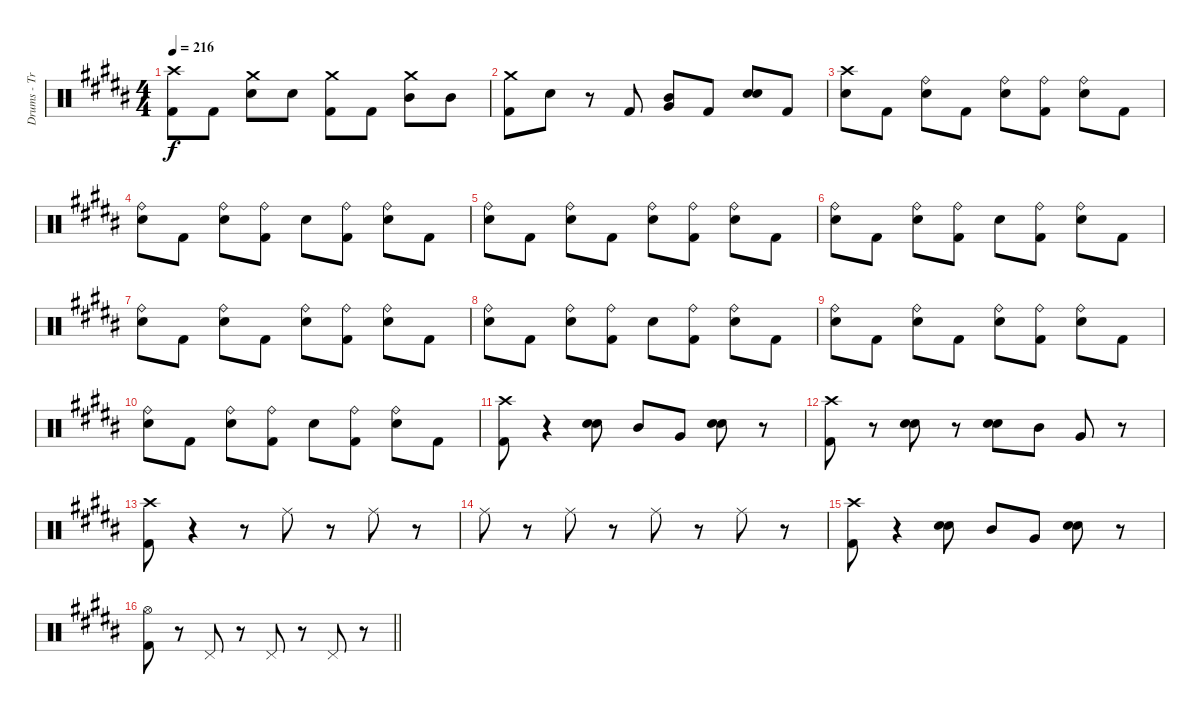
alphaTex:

\track ("Drums - Travis Barker" "Drums - Tr") {instrument percussion}
\staff {score}
\articulation defaults
\ts (4 4)
\tempo 216
\clef neutral
\ks b
("Kick (hit) 2" "Crash high (hit)").8{dy f} "Kick (hit) 2".8 ("Snare (hit) 2" "Crash medium (hit)").8 "Snare (hit) 2".8 ("Kick (hit) 2" "Crash medium (hit)").8 "Kick (hit) 2".8 ("Mid Tom (hit)" "Crash medium (hit)").8 "Mid Tom (hit)".8 |
("Kick (hit) 2" "Crash medium (hit)").8 "Snare (hit) 2".8 r.8 "Kick (hit) 2".8 ("Mid Tom (hit)" "Very Low Tom (hit)").8 "Kick (hit) 2".8 ("Snare (hit) 2" "Snare (hit) 2").8 "Kick (hit) 2".8 |
("Snare (hit) 2" "Crash high (hit)").8 "Kick (hit) 2".8 ("Snare (hit) 2" "Ride (bell)").8 "Kick (hit) 2".8 ("Snare (hit) 2" "Ride (bell)").8 ("Kick (hit) 2" "Ride (bell)").8 ("Snare (hit) 2" "Ride (bell)").8 "Kick (hit) 2".8 |
("Snare (hit) 2" "Ride (bell)").8 "Kick (hit) 2".8 ("Snare (hit) 2" "Ride (bell)").8 ("Kick (hit) 2" "Ride (bell)").8 "Snare (hit) 2".8 ("Kick (hit) 2" "Ride (bell)").8 ("Snare (hit) 2" "Ride (bell)").8 "Kick (hit) 2".8 |
("Snare (hit) 2" "Ride (bell)").8 "Kick (hit) 2".8 ("Snare (hit) 2" "Ride (bell)").8 "Kick (hit) 2".8 ("Snare (hit) 2" "Ride (bell)").8 ("Kick (hit) 2" "Ride (bell)").8 ("Snare (hit) 2" "Ride (bell)").8 "Kick (hit) 2".8 |
("Snare (hit) 2" "Ride (bell)").8 "Kick (hit) 2".8 ("Snare (hit) 2" "Ride (bell)").8 ("Kick (hit) 2" "Ride (bell)").8 "Snare (hit) 2".8 ("Kick (hit) 2" "Ride (bell)").8 ("Snare (hit) 2" "Ride (bell)").8 "Kick (hit) 2".8 |
("Snare (hit) 2" "Ride (bell)").8 "Kick (hit) 2".8 ("Snare (hit) 2" "Ride (bell)").8 "Kick (hit) 2".8 ("Snare (hit) 2" "Ride (bell)").8 ("Kick (hit) 2" "Ride (bell)").8 ("Snare (hit) 2" "Ride (bell)").8 "Kick (hit) 2".8 |
("Snare (hit) 2" "Ride (bell)").8 "Kick (hit) 2".8 ("Snare (hit) 2" "Ride (bell)").8 ("Kick (hit) 2" "Ride (bell)").8 "Snare (hit) 2".8 ("Kick (hit) 2" "Ride (bell)").8 ("Snare (hit) 2" "Ride (bell)").8 "Kick (hit) 2".8 |
("Snare (hit) 2" "Ride (bell)").8 "Kick (hit) 2".8 ("Snare (hit) 2" "Ride (bell)").8 "Kick (hit) 2".8 ("Snare (hit) 2" "Ride (bell)").8 ("Kick (hit) 2" "Ride (bell)").8 ("Snare (hit) 2" "Ride (bell)").8 "Kick (hit) 2".8 |
("Snare (hit) 2" "Ride (bell)").8 "Kick (hit) 2".8 ("Snare (hit) 2" "Ride (bell)").8 ("Kick (hit) 2" "Ride (bell)").8 "Snare (hit) 2".8 ("Kick (hit) 2" "Ride (bell)").8 ("Snare (hit) 2" "Ride (bell)").8 "Kick (hit) 2".8 |
("Kick (hit) 2" "Crash high (hit)").8 r.4 ("Snare (hit) 2" "Snare (hit) 2").8 "Mid Tom (hit)".8 "Very Low Tom (hit)".8 ("Snare (hit) 2" "Snare (hit) 2").8 r.8 |
("Kick (hit) 2" "Crash high (hit)").8 r.8 ("Snare (hit) 2" "Snare (hit) 2").8 r.8 ("Snare (hit) 2" "Snare (hit) 2").8 "Mid Tom (hit)".8 "Very Low Tom (hit)".8 r.8 |
("Kick (hit) 2" "Crash high (hit)").8 r.4 r.8 "Ride (middle)".8 r.8 "Ride (middle)".8 r.8 |
"Ride (middle)".8 r.8 "Ride (middle)".8 r.8 "Ride (middle)".8 r.8 "Ride (middle)".8 r.8 |
("Kick (hit) 2" "Crash high (hit)").8 r.4 ("Snare (hit) 2" "Snare (hit) 2").8 "Mid Tom (hit)".8 "Very Low Tom (hit)".8 ("Snare (hit) 2" "Snare (hit) 2").8 r.8 |
\barLineRight lightlight
("Kick (hit) 2" "Hi-Hat (open)").8 r.8 "Pedal Hi-Hat (hit)".8 r.8 "Pedal Hi-Hat (hit)".8 r.8 "Pedal Hi-Hat (hit)".8 r.8
